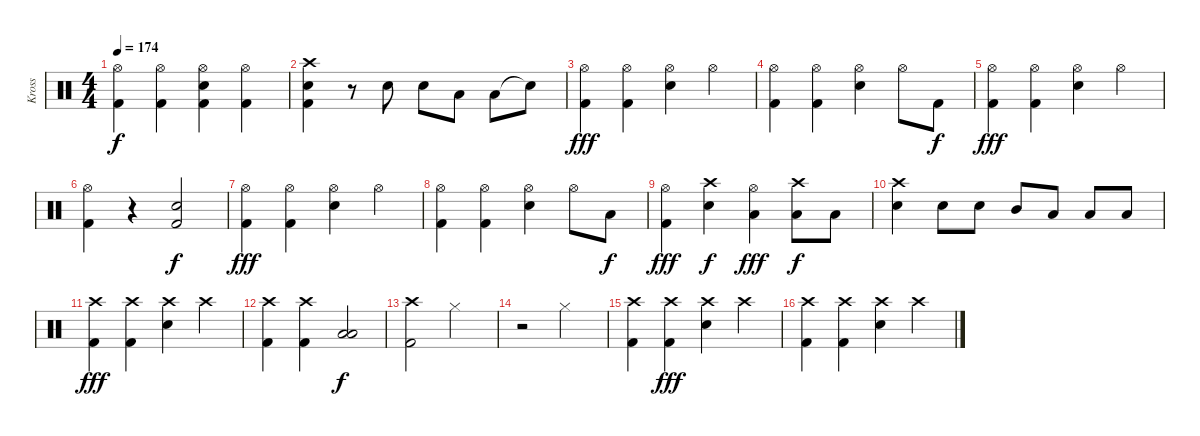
\track ("Kross" "Kross") {instrument percussion}
\staff {score}
\articulation defaults
\ts (4 4)
\tempo 174
\clef neutral
\ks c
("Hi-Hat (open)" "Kick (hit) 2").4{dy f} ("Hi-Hat (open)" "Kick (hit) 2").4 ("Hi-Hat (open)" "Electric Snare (hit)" "Kick (hit) 2").4 ("Hi-Hat (open)" "Kick (hit) 2").4 |
("Crash high (hit)" "Electric Snare (hit)" "Kick (hit) 2").4 r.8 "Electric Snare (hit)".8 "Electric Snare (hit)".8 "Low Tom (hit)".8 "Low Floor Tom (hit)".8 "Snare (hit)"{t}.8 |
("Hi-Hat (open)" "Kick (hit) 2").4{dy fff} ("Hi-Hat (open)" "Kick (hit) 2").4 ("Hi-Hat (open)" "Electric Snare (hit)").4 "Hi-Hat (open)".4 |
("Hi-Hat (open)" "Kick (hit) 2").4 ("Hi-Hat (open)" "Kick (hit) 2").4 ("Hi-Hat (open)" "Electric Snare (hit)").4 "Hi-Hat (open)".8 "Kick (hit) 2".8{dy f} |
("Hi-Hat (open)" "Kick (hit) 2").4{dy fff} ("Hi-Hat (open)" "Kick (hit) 2").4 ("Hi-Hat (open)" "Electric Snare (hit)").4 "Hi-Hat (open)".4 |
("Hi-Hat (open)" "Kick (hit) 2").4 r.4 ("Electric Snare (hit)" "Kick (hit) 2").2{dy f} |
("Hi-Hat (open)" "Kick (hit) 2").4{dy fff} ("Hi-Hat (open)" "Kick (hit) 2").4 ("Hi-Hat (open)" "Electric Snare (hit)").4 "Hi-Hat (open)".4 |
("Hi-Hat (open)" "Kick (hit) 2").4 ("Hi-Hat (open)" "Kick (hit) 2").4 ("Hi-Hat (open)" "Electric Snare (hit)").4 "Hi-Hat (open)".8 "Low Floor Tom (hit)".8{dy f} |
("Hi-Hat (open)" "Kick (hit) 2").4{dy fff} ("Crash high (hit)" "Electric Snare (hit)").4{dy f} ("Hi-Hat (open)" "Low Tom (hit)").4{dy fff} ("Crash high (hit)" "Low Tom (hit)").8{dy f} "Low Floor Tom (hit)".8 |
("Crash high (hit)" "Electric Snare (hit)").4 "Electric Snare (hit)".8 "Electric Snare (hit)".8 "Mid Tom (hit)".8 "Low Tom (hit)".8 "Low Floor Tom (hit)".8 "Low Floor Tom (hit)".8 |
("Crash high (hit)" "Kick (hit) 2").4{dy fff} ("Crash high (hit)" "Kick (hit) 2").4 ("Crash high (hit)" "Electric Snare (hit)").4 "Crash high (hit)".4 |
("Crash high (hit)" "Kick (hit) 2").4 ("Crash high (hit)" "Kick (hit) 2").4 ("Low Floor Tom (hit)" "Low Tom (hit)").2{dy f} |
("Crash high (hit)" "Kick (hit) 2").2 "Hi-Hat (closed)".2 |
r.2 "Hi-Hat (closed)".2 |
("Crash high (hit)" "Kick (hit) 2").4 ("Crash high (hit)" "Kick (hit) 2").4{dy fff} ("Crash high (hit)" "Electric Snare (hit)").4 "Crash high (hit)".4 |
("Crash high (hit)" "Kick (hit) 2").4 ("Crash high (hit)" "Kick (hit) 2").4 ("Crash high (hit)" "Electric Snare (hit)").4 "Crash high (hit)".4
